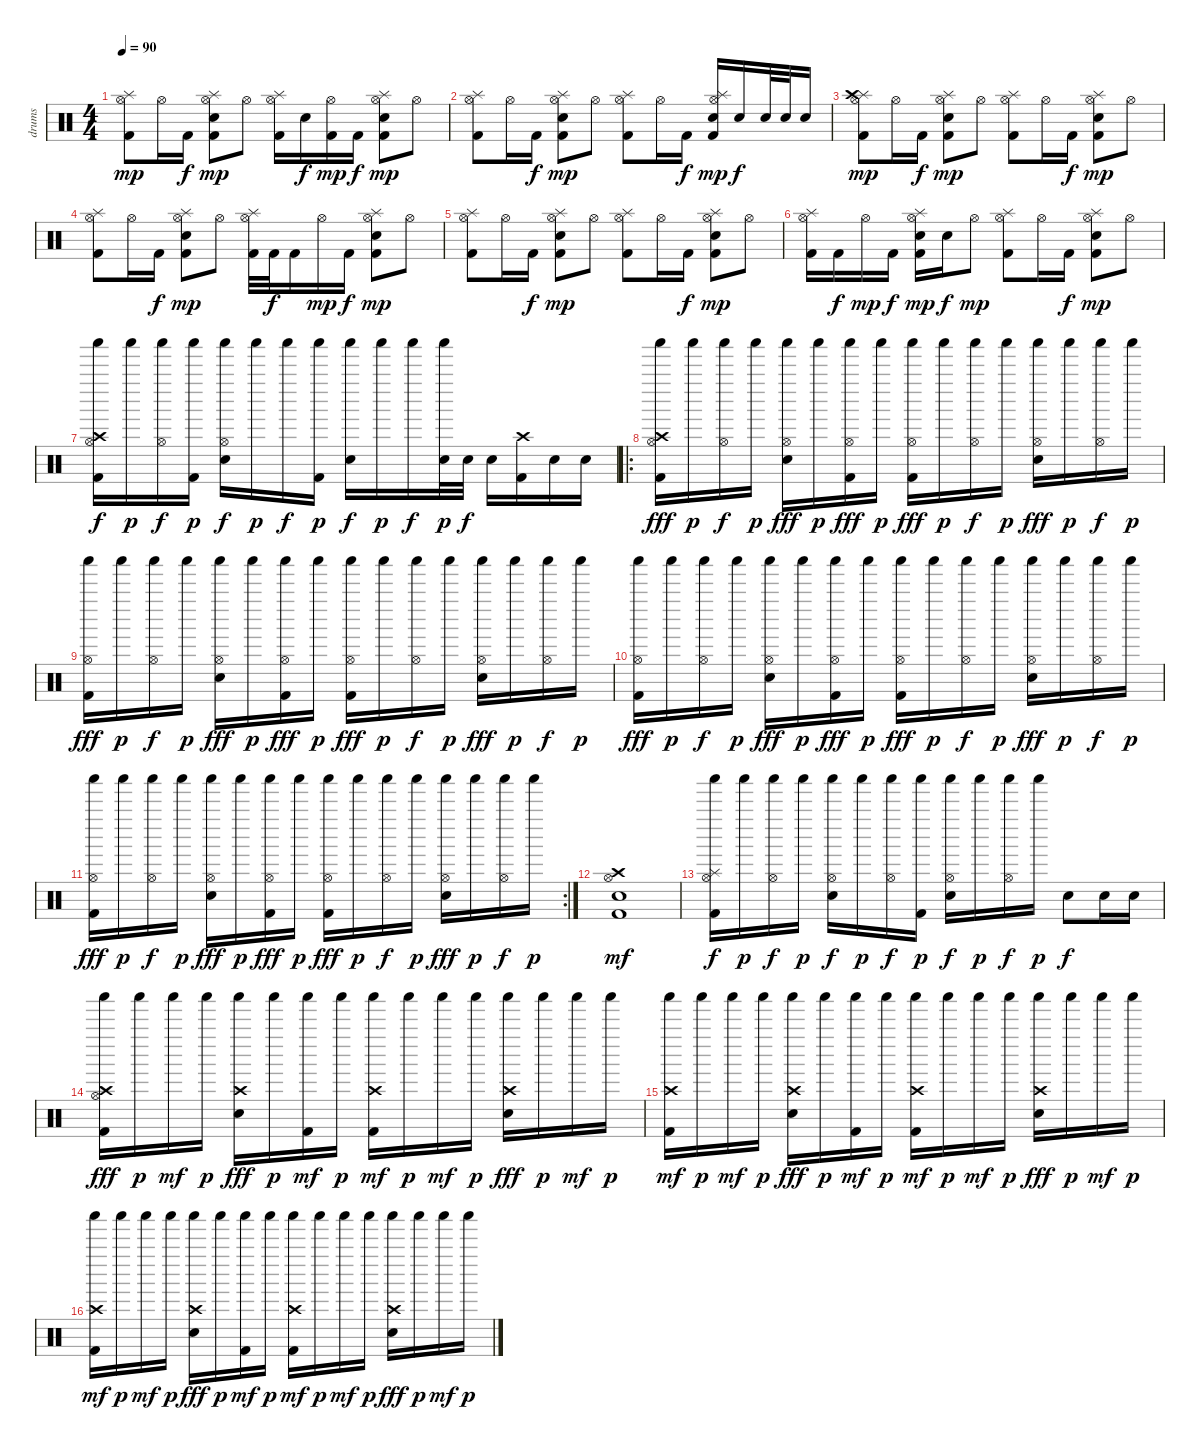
\track ("drums" "drums") {instrument percussion}
\staff {score}
\articulation defaults
\ts (4 4)
\tempo 90
\clef neutral
\ks c
("Kick (hit) 2" "Splash (hit)" "Hi-Hat (open)").8{dy mp} "Hi-Hat (open)".16 "Kick (hit) 2".16{dy f} ("Kick (hit) 2" "Splash (hit)" "Hi-Hat (open)" "Snare (hit) 2").8{dy mp} "Hi-Hat (open)".8 ("Kick (hit) 2" "Splash (hit)" "Hi-Hat (open)").16 "Snare (hit) 2".16{dy f} ("Kick (hit) 2" "Hi-Hat (open)").16{dy mp} "Kick (hit) 2".16{dy f} ("Kick (hit) 2" "Splash (hit)" "Hi-Hat (open)" "Snare (hit) 2").8{dy mp} "Hi-Hat (open)".8 |
("Kick (hit) 2" "Splash (hit)" "Hi-Hat (open)").8 "Hi-Hat (open)".16 "Kick (hit) 2".16{dy f} ("Kick (hit) 2" "Splash (hit)" "Hi-Hat (open)" "Snare (hit) 2").8{dy mp} "Hi-Hat (open)".8 ("Kick (hit) 2" "Splash (hit)" "Hi-Hat (open)").8 "Hi-Hat (open)".16 "Kick (hit) 2".16{dy f} ("Kick (hit) 2" "Splash (hit)" "Hi-Hat (open)" "Snare (hit) 2").16{dy mp} "Snare (hit) 2".16{dy f} "Snare (hit) 2".32 "Snare (hit) 2".32 "Snare (hit) 2".16 |
("Kick (hit) 2" "Splash (hit)" "Crash high (hit)" "Hi-Hat (open)").8{dy mp} "Hi-Hat (open)".16 "Kick (hit) 2".16{dy f} ("Kick (hit) 2" "Splash (hit)" "Hi-Hat (open)" "Snare (hit) 2").8{dy mp} "Hi-Hat (open)".8 ("Kick (hit) 2" "Splash (hit)" "Hi-Hat (open)").8 "Hi-Hat (open)".16 "Kick (hit) 2".16{dy f} ("Kick (hit) 2" "Splash (hit)" "Hi-Hat (open)" "Snare (hit) 2").8{dy mp} "Hi-Hat (open)".8 |
("Kick (hit) 2" "Splash (hit)" "Hi-Hat (open)").8 "Hi-Hat (open)".16 "Kick (hit) 2".16{dy f} ("Kick (hit) 2" "Splash (hit)" "Hi-Hat (open)" "Snare (hit) 2").8{dy mp} "Hi-Hat (open)".8 ("Kick (hit) 2" "Splash (hit)" "Hi-Hat (open)").32 "Kick (hit) 2".32{dy f} "Kick (hit) 2".16 "Hi-Hat (open)".16{dy mp} "Kick (hit) 2".16{dy f} ("Kick (hit) 2" "Splash (hit)" "Hi-Hat (open)" "Snare (hit) 2").8{dy mp} "Hi-Hat (open)".8 |
("Kick (hit) 2" "Splash (hit)" "Hi-Hat (open)").8 "Hi-Hat (open)".16 "Kick (hit) 2".16{dy f} ("Kick (hit) 2" "Splash (hit)" "Hi-Hat (open)" "Snare (hit) 2").8{dy mp} "Hi-Hat (open)".8 ("Kick (hit) 2" "Splash (hit)" "Hi-Hat (open)").8 "Hi-Hat (open)".16 "Kick (hit) 2".16{dy f} ("Kick (hit) 2" "Splash (hit)" "Hi-Hat (open)" "Snare (hit) 2").8{dy mp} "Hi-Hat (open)".8 |
("Kick (hit) 2" "Splash (hit)" "Hi-Hat (open)").16 "Kick (hit) 2".16{dy f} "Hi-Hat (open)".16{dy mp} "Kick (hit) 2".16{dy f} ("Kick (hit) 2" "Splash (hit)" "Hi-Hat (open)" "Snare (hit) 2").16{dy mp} "Snare (hit) 2".16{dy f} "Hi-Hat (open)".8{dy mp} ("Kick (hit) 2" "Splash (hit)" "Hi-Hat (open)").8 "Hi-Hat (open)".16 "Kick (hit) 2".16{dy f} ("Kick (hit) 2" "Splash (hit)" "Hi-Hat (open)" "Snare (hit) 2").8{dy mp} "Hi-Hat (open)".8 |
("Kick (hit) 2" "Crash high (hit)" "Shaker (hit)" "Hi-Hat (open)").16{dy f} "Shaker (hit)".16{dy p} ("Shaker (hit)" "Hi-Hat (open)").16{dy f} ("Kick (hit) 2" "Shaker (hit)").16{dy p} ("Shaker (hit)" "Hi-Hat (open)" "Snare (hit) 2").16{dy f} "Shaker (hit)".16{dy p} "Shaker (hit)".16{dy f} ("Kick (hit) 2" "Shaker (hit)").16{dy p} ("Shaker (hit)" "Electric Snare (hit)").16{dy f} "Shaker (hit)".16{dy p} "Shaker (hit)".16{dy f} ("Shaker (hit)" "Electric Snare (hit)").32{dy p} "Electric Snare (hit)".32{dy f} "Electric Snare (hit)".16 ("Kick (hit) 2" "Crash high (hit)").16 "Electric Snare (hit)".16 "Electric Snare (hit)".16 |
\ro
("Kick (hit) 2" "Crash high (hit)" "Shaker (hit)" "Hi-Hat (open)").16{dy fff} "Shaker (hit)".16{dy p} ("Shaker (hit)" "Hi-Hat (open)").16{dy f} "Shaker (hit)".16{dy p} ("Shaker (hit)" "Hi-Hat (open)" "Snare (hit) 2").16{dy fff} "Shaker (hit)".16{dy p} ("Kick (hit) 2" "Shaker (hit)" "Hi-Hat (open)").16{dy fff} "Shaker (hit)".16{dy p} ("Kick (hit) 2" "Shaker (hit)" "Hi-Hat (open)").16{dy fff} "Shaker (hit)".16{dy p} ("Shaker (hit)" "Hi-Hat (open)").16{dy f} "Shaker (hit)".16{dy p} ("Shaker (hit)" "Hi-Hat (open)" "Snare (hit) 2").16{dy fff} "Shaker (hit)".16{dy p} ("Shaker (hit)" "Hi-Hat (open)").16{dy f} "Shaker (hit)".16{dy p} |
("Kick (hit) 2" "Shaker (hit)" "Hi-Hat (open)").16{dy fff} "Shaker (hit)".16{dy p} ("Shaker (hit)" "Hi-Hat (open)").16{dy f} "Shaker (hit)".16{dy p} ("Shaker (hit)" "Hi-Hat (open)" "Snare (hit) 2").16{dy fff} "Shaker (hit)".16{dy p} ("Kick (hit) 2" "Shaker (hit)" "Hi-Hat (open)").16{dy fff} "Shaker (hit)".16{dy p} ("Kick (hit) 2" "Shaker (hit)" "Hi-Hat (open)").16{dy fff} "Shaker (hit)".16{dy p} ("Shaker (hit)" "Hi-Hat (open)").16{dy f} "Shaker (hit)".16{dy p} ("Shaker (hit)" "Hi-Hat (open)" "Snare (hit) 2").16{dy fff} "Shaker (hit)".16{dy p} ("Shaker (hit)" "Hi-Hat (open)").16{dy f} "Shaker (hit)".16{dy p} |
("Kick (hit) 2" "Shaker (hit)" "Hi-Hat (open)").16{dy fff} "Shaker (hit)".16{dy p} ("Shaker (hit)" "Hi-Hat (open)").16{dy f} "Shaker (hit)".16{dy p} ("Shaker (hit)" "Hi-Hat (open)" "Snare (hit) 2").16{dy fff} "Shaker (hit)".16{dy p} ("Kick (hit) 2" "Shaker (hit)" "Hi-Hat (open)").16{dy fff} "Shaker (hit)".16{dy p} ("Kick (hit) 2" "Shaker (hit)" "Hi-Hat (open)").16{dy fff} "Shaker (hit)".16{dy p} ("Shaker (hit)" "Hi-Hat (open)").16{dy f} "Shaker (hit)".16{dy p} ("Shaker (hit)" "Hi-Hat (open)" "Snare (hit) 2").16{dy fff} "Shaker (hit)".16{dy p} ("Shaker (hit)" "Hi-Hat (open)").16{dy f} "Shaker (hit)".16{dy p} |
\rc 2
("Kick (hit) 2" "Shaker (hit)" "Hi-Hat (open)").16{dy fff} "Shaker (hit)".16{dy p} ("Shaker (hit)" "Hi-Hat (open)").16{dy f} "Shaker (hit)".16{dy p} ("Shaker (hit)" "Hi-Hat (open)" "Snare (hit) 2").16{dy fff} "Shaker (hit)".16{dy p} ("Kick (hit) 2" "Shaker (hit)" "Hi-Hat (open)").16{dy fff} "Shaker (hit)".16{dy p} ("Kick (hit) 2" "Shaker (hit)" "Hi-Hat (open)").16{dy fff} "Shaker (hit)".16{dy p} ("Shaker (hit)" "Hi-Hat (open)").16{dy f} "Shaker (hit)".16{dy p} ("Shaker (hit)" "Hi-Hat (open)" "Snare (hit) 2").16{dy fff} "Shaker (hit)".16{dy p} ("Shaker (hit)" "Hi-Hat (open)").16{dy f} "Shaker (hit)".16{dy p} |
("Kick (hit) 2" "Crash high (hit)" "Hi-Hat (open)" "Snare (hit) 2").1{dy mf} |
("Kick (hit) 2" "Splash (hit)" "Shaker (hit)" "Hi-Hat (open)").16{dy f} "Shaker (hit)".16{dy p} ("Shaker (hit)" "Hi-Hat (open)").16{dy f} "Shaker (hit)".16{dy p} ("Shaker (hit)" "Hi-Hat (open)" "Snare (hit) 2").16{dy f} "Shaker (hit)".16{dy p} ("Shaker (hit)" "Hi-Hat (open)").16{dy f} ("Kick (hit) 2" "Shaker (hit)").16{dy p} ("Shaker (hit)" "Hi-Hat (open)" "Snare (hit) 2").16{dy f} "Shaker (hit)".16{dy p} ("Shaker (hit)" "Hi-Hat (open)").16{dy f} "Shaker (hit)".16{dy p} "Electric Snare (hit)".8{dy f} "Electric Snare (hit)".16 "Electric Snare (hit)".16 |
("Kick (hit) 2" "Crash high (hit)" "Shaker (hit)" "Hi-Hat (open)").16{dy fff} "Shaker (hit)".16{dy p} "Shaker (hit)".16{dy mf} "Shaker (hit)".16{dy p} ("Crash high (hit)" "Shaker (hit)" "Snare (hit) 2").16{dy fff} "Shaker (hit)".16{dy p} ("Kick (hit) 2" "Shaker (hit)").16{dy mf} "Shaker (hit)".16{dy p} ("Kick (hit) 2" "Crash high (hit)" "Shaker (hit)").16{dy mf} "Shaker (hit)".16{dy p} "Shaker (hit)".16{dy mf} "Shaker (hit)".16{dy p} ("Crash high (hit)" "Shaker (hit)" "Snare (hit) 2").16{dy fff} "Shaker (hit)".16{dy p} "Shaker (hit)".16{dy mf} "Shaker (hit)".16{dy p} |
("Kick (hit) 2" "Crash high (hit)" "Shaker (hit)").16{dy mf} "Shaker (hit)".16{dy p} "Shaker (hit)".16{dy mf} "Shaker (hit)".16{dy p} ("Crash high (hit)" "Shaker (hit)" "Snare (hit) 2").16{dy fff} "Shaker (hit)".16{dy p} ("Kick (hit) 2" "Shaker (hit)").16{dy mf} "Shaker (hit)".16{dy p} ("Kick (hit) 2" "Crash high (hit)" "Shaker (hit)").16{dy mf} "Shaker (hit)".16{dy p} "Shaker (hit)".16{dy mf} "Shaker (hit)".16{dy p} ("Crash high (hit)" "Shaker (hit)" "Snare (hit) 2").16{dy fff} "Shaker (hit)".16{dy p} "Shaker (hit)".16{dy mf} "Shaker (hit)".16{dy p} |
("Kick (hit) 2" "Crash high (hit)" "Shaker (hit)").16{dy mf} "Shaker (hit)".16{dy p} "Shaker (hit)".16{dy mf} "Shaker (hit)".16{dy p} ("Crash high (hit)" "Shaker (hit)" "Snare (hit) 2").16{dy fff} "Shaker (hit)".16{dy p} ("Kick (hit) 2" "Shaker (hit)").16{dy mf} "Shaker (hit)".16{dy p} ("Kick (hit) 2" "Crash high (hit)" "Shaker (hit)").16{dy mf} "Shaker (hit)".16{dy p} "Shaker (hit)".16{dy mf} "Shaker (hit)".16{dy p} ("Crash high (hit)" "Shaker (hit)" "Snare (hit) 2").16{dy fff} "Shaker (hit)".16{dy p} "Shaker (hit)".16{dy mf} "Shaker (hit)".16{dy p}
